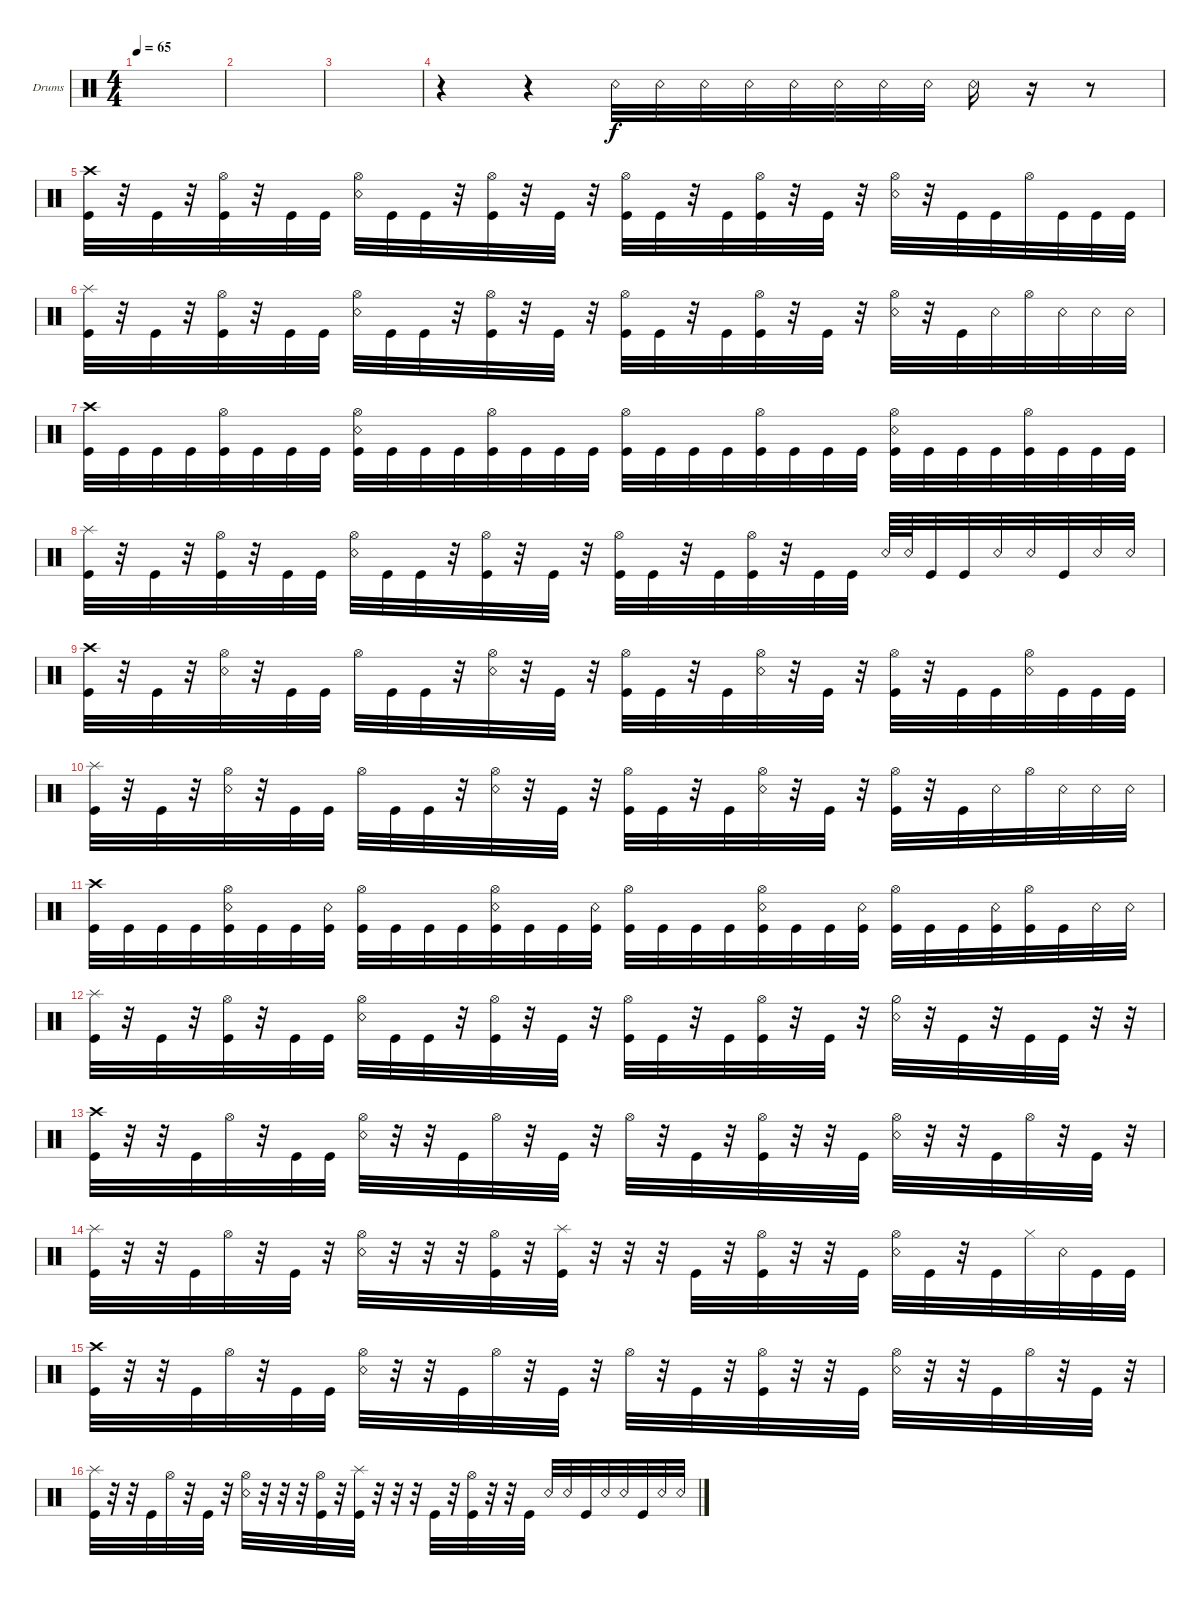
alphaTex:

\defaultSystemsLayout 4
\bracketExtendMode groupsimilarinstruments
\firstSystemTrackNameOrientation horizontal
\otherSystemsTrackNameOrientation horizontal
\track ("Drumkit" "Drums") {instrument percussion}
\staff {score}
\articulation defaults
\ts (4 4)
\tempo 65
\clef neutral
\ks c
|
|
|
r.4 r.4 "Snare (rim shot)".32 "Snare (rim shot)".32 "Snare (rim shot)".32 "Snare (rim shot)".32 "Snare (rim shot)".32 "Snare (rim shot)".32 "Snare (rim shot)".32 "Snare (rim shot)".32 "Snare (rim shot)".16 r.16 r.8 |
("Kick (hit)" "Crash high (hit)").32 r.32 "Kick (hit)".32 r.32 ("Kick (hit)" "Hi-Hat (open)").32 r.32 "Kick (hit)".32 "Kick (hit)".32 ("Snare (rim shot)" "Hi-Hat (open)").32 "Kick (hit)".32 "Kick (hit)".32 r.32 ("Kick (hit)" "Hi-Hat (open)").32 r.32 "Kick (hit)".32 r.32 ("Kick (hit)" "Hi-Hat (open)").32 "Kick (hit)".32 r.32 "Kick (hit)".32 ("Kick (hit)" "Hi-Hat (open)").32 r.32 "Kick (hit)".32 r.32 ("Snare (rim shot)" "Hi-Hat (open)").32 r.32 "Kick (hit)".32 "Kick (hit)".32 "Hi-Hat (open)".32 "Kick (hit)".32 "Kick (hit)".32 "Kick (hit)".32 |
("Kick (hit)" "Splash (hit)").32 r.32 "Kick (hit)".32 r.32 ("Kick (hit)" "Hi-Hat (open)").32 r.32 "Kick (hit)".32 "Kick (hit)".32 ("Snare (rim shot)" "Hi-Hat (open)").32 "Kick (hit)".32 "Kick (hit)".32 r.32 ("Kick (hit)" "Hi-Hat (open)").32 r.32 "Kick (hit)".32 r.32 ("Kick (hit)" "Hi-Hat (open)").32 "Kick (hit)".32 r.32 "Kick (hit)".32 ("Kick (hit)" "Hi-Hat (open)").32 r.32 "Kick (hit)".32 r.32 ("Snare (rim shot)" "Hi-Hat (open)").32 r.32 "Kick (hit)".32 "Snare (rim shot)".32 "Hi-Hat (open)".32 "Snare (rim shot)".32 "Snare (rim shot)".32 "Snare (rim shot)".32 |
("Kick (hit)" "Crash high (hit)").32 "Kick (hit)".32 "Kick (hit)".32 "Kick (hit)".32 ("Kick (hit)" "Hi-Hat (open)").32 "Kick (hit)".32 "Kick (hit)".32 "Kick (hit)".32 ("Snare (rim shot)" "Hi-Hat (open)" "Kick (hit)").32 "Kick (hit)".32 "Kick (hit)".32 "Kick (hit)".32 ("Kick (hit)" "Hi-Hat (open)").32 "Kick (hit)".32 "Kick (hit)".32 "Kick (hit)".32 ("Kick (hit)" "Hi-Hat (open)").32 "Kick (hit)".32 "Kick (hit)".32 "Kick (hit)".32 ("Kick (hit)" "Hi-Hat (open)").32 "Kick (hit)".32 "Kick (hit)".32 "Kick (hit)".32 ("Snare (rim shot)" "Hi-Hat (open)" "Kick (hit)").32 "Kick (hit)".32 "Kick (hit)".32 "Kick (hit)".32 ("Hi-Hat (open)" "Kick (hit)").32 "Kick (hit)".32 "Kick (hit)".32 "Kick (hit)".32 |
("Kick (hit)" "Splash (hit)").32 r.32 "Kick (hit)".32 r.32 ("Kick (hit)" "Hi-Hat (open)").32 r.32 "Kick (hit)".32 "Kick (hit)".32 ("Snare (rim shot)" "Hi-Hat (open)").32 "Kick (hit)".32 "Kick (hit)".32 r.32 ("Kick (hit)" "Hi-Hat (open)").32 r.32 "Kick (hit)".32 r.32 ("Kick (hit)" "Hi-Hat (open)").32 "Kick (hit)".32 r.32 "Kick (hit)".32 ("Kick (hit)" "Hi-Hat (open)").32 r.32 "Kick (hit)".32 "Kick (hit)".32 "Snare (rim shot)".64 "Snare (rim shot)".64 "Kick (hit)".32 "Kick (hit)".32 "Snare (rim shot)".32 "Snare (rim shot)".32 "Kick (hit)".32 "Snare (rim shot)".32 "Snare (rim shot)".32 |
("Kick (hit)" "Crash high (hit)").32 r.32 "Kick (hit)".32 r.32 ("Hi-Hat (open)" "Snare (rim shot)").32 r.32 "Kick (hit)".32 "Kick (hit)".32 "Hi-Hat (open)".32 "Kick (hit)".32 "Kick (hit)".32 r.32 ("Hi-Hat (open)" "Snare (rim shot)").32 r.32 "Kick (hit)".32 r.32 ("Kick (hit)" "Hi-Hat (open)").32 "Kick (hit)".32 r.32 "Kick (hit)".32 ("Hi-Hat (open)" "Snare (rim shot)").32 r.32 "Kick (hit)".32 r.32 ("Hi-Hat (open)" "Kick (hit)").32 r.32 "Kick (hit)".32 "Kick (hit)".32 ("Hi-Hat (open)" "Snare (rim shot)").32 "Kick (hit)".32 "Kick (hit)".32 "Kick (hit)".32 |
("Kick (hit)" "Splash (hit)").32 r.32 "Kick (hit)".32 r.32 ("Hi-Hat (open)" "Snare (rim shot)").32 r.32 "Kick (hit)".32 "Kick (hit)".32 "Hi-Hat (open)".32 "Kick (hit)".32 "Kick (hit)".32 r.32 ("Hi-Hat (open)" "Snare (rim shot)").32 r.32 "Kick (hit)".32 r.32 ("Kick (hit)" "Hi-Hat (open)").32 "Kick (hit)".32 r.32 "Kick (hit)".32 ("Hi-Hat (open)" "Snare (rim shot)").32 r.32 "Kick (hit)".32 r.32 ("Hi-Hat (open)" "Kick (hit)").32 r.32 "Kick (hit)".32 "Snare (rim shot)".32 "Hi-Hat (open)".32 "Snare (rim shot)".32 "Snare (rim shot)".32 "Snare (rim shot)".32 |
("Kick (hit)" "Crash high (hit)").32 "Kick (hit)".32 "Kick (hit)".32 "Kick (hit)".32 ("Kick (hit)" "Hi-Hat (open)" "Snare (rim shot)").32 "Kick (hit)".32 "Kick (hit)".32 ("Kick (hit)" "Snare (rim shot)").32 ("Hi-Hat (open)" "Kick (hit)").32 "Kick (hit)".32 "Kick (hit)".32 "Kick (hit)".32 ("Kick (hit)" "Hi-Hat (open)" "Snare (rim shot)").32 "Kick (hit)".32 "Kick (hit)".32 ("Kick (hit)" "Snare (rim shot)").32 ("Kick (hit)" "Hi-Hat (open)").32 "Kick (hit)".32 "Kick (hit)".32 "Kick (hit)".32 ("Kick (hit)" "Hi-Hat (open)" "Snare (rim shot)").32 "Kick (hit)".32 "Kick (hit)".32 ("Kick (hit)" "Snare (rim shot)").32 ("Hi-Hat (open)" "Kick (hit)").32 "Kick (hit)".32 "Kick (hit)".32 ("Kick (hit)" "Snare (rim shot)").32 ("Hi-Hat (open)" "Kick (hit)").32 "Kick (hit)".32 "Snare (rim shot)".32 "Snare (rim shot)".32 |
("Kick (hit)" "Splash (hit)").32 r.32 "Kick (hit)".32 r.32 ("Kick (hit)" "Hi-Hat (open)").32 r.32 "Kick (hit)".32 "Kick (hit)".32 ("Snare (rim shot)" "Hi-Hat (open)").32 "Kick (hit)".32 "Kick (hit)".32 r.32 ("Kick (hit)" "Hi-Hat (open)").32 r.32 "Kick (hit)".32 r.32 ("Kick (hit)" "Hi-Hat (open)").32 "Kick (hit)".32 r.32 "Kick (hit)".32 ("Kick (hit)" "Hi-Hat (open)").32 r.32 "Kick (hit)".32 r.32 ("Snare (rim shot)" "Hi-Hat (half)").32 r.32 "Kick (hit)".32 r.32 "Kick (hit)".32 "Kick (hit)".32 r.32 r.32 |
("Kick (hit)" "Crash high (hit)").32 r.32 r.32 "Kick (hit)".32 "Hi-Hat (open)".32 r.32 "Kick (hit)".32 "Kick (hit)".32 ("Snare (rim shot)" "Hi-Hat (open)").32 r.32 r.32 "Kick (hit)".32 "Hi-Hat (open)".32 r.32 "Kick (hit)".32 r.32 "Hi-Hat (open)".32 r.32 "Kick (hit)".32 r.32 ("Kick (hit)" "Hi-Hat (open)").32 r.32 r.32 "Kick (hit)".32 ("Snare (rim shot)" "Hi-Hat (open)").32 r.32 r.32 "Kick (hit)".32 "Hi-Hat (open)".32 r.32 "Kick (hit)".32 r.32 |
("Kick (hit)" "Splash (hit)").32 r.32 r.32 "Kick (hit)".32 "Hi-Hat (open)".32 r.32 "Kick (hit)".32 r.32 ("Snare (rim shot)" "Hi-Hat (open)").32 r.32 r.32 r.32 ("Kick (hit)" "Hi-Hat (open)").32 r.32 ("Kick (hit)" "Splash (hit)").32 r.32 r.32 r.32 "Kick (hit)".32 r.32 ("Kick (hit)" "Hi-Hat (open)").32 r.32 r.32 "Kick (hit)".32 ("Snare (rim shot)" "Hi-Hat (open)").32 "Kick (hit)".32 r.32 "Kick (hit)".32 "Hi-Hat (closed)".32 "Snare (rim shot)".32 "Kick (hit)".32 "Kick (hit)".32 |
("Kick (hit)" "Crash high (hit)").32 r.32 r.32 "Kick (hit)".32 "Hi-Hat (open)".32 r.32 "Kick (hit)".32 "Kick (hit)".32 ("Snare (rim shot)" "Hi-Hat (open)").32 r.32 r.32 "Kick (hit)".32 "Hi-Hat (open)".32 r.32 "Kick (hit)".32 r.32 "Hi-Hat (open)".32 r.32 "Kick (hit)".32 r.32 ("Kick (hit)" "Hi-Hat (open)").32 r.32 r.32 "Kick (hit)".32 ("Snare (rim shot)" "Hi-Hat (open)").32 r.32 r.32 "Kick (hit)".32 "Hi-Hat (open)".32 r.32 "Kick (hit)".32 r.32 |
("Kick (hit)" "Splash (hit)").32 r.32 r.32 "Kick (hit)".32 "Hi-Hat (open)".32 r.32 "Kick (hit)".32 r.32 ("Snare (rim shot)" "Hi-Hat (open)").32 r.32 r.32 r.32 ("Kick (hit)" "Hi-Hat (open)").32 r.32 ("Kick (hit)" "Splash (hit)").32 r.32 r.32 r.32 "Kick (hit)".32 r.32 ("Kick (hit)" "Hi-Hat (open)").32 r.32 r.32 "Kick (hit)".32 "Snare (rim shot)".32 "Snare (rim shot)".32 "Kick (hit)".32 "Snare (rim shot)".32 "Snare (rim shot)".32 "Kick (hit)".32 "Snare (rim shot)".32 "Snare (rim shot)".32
